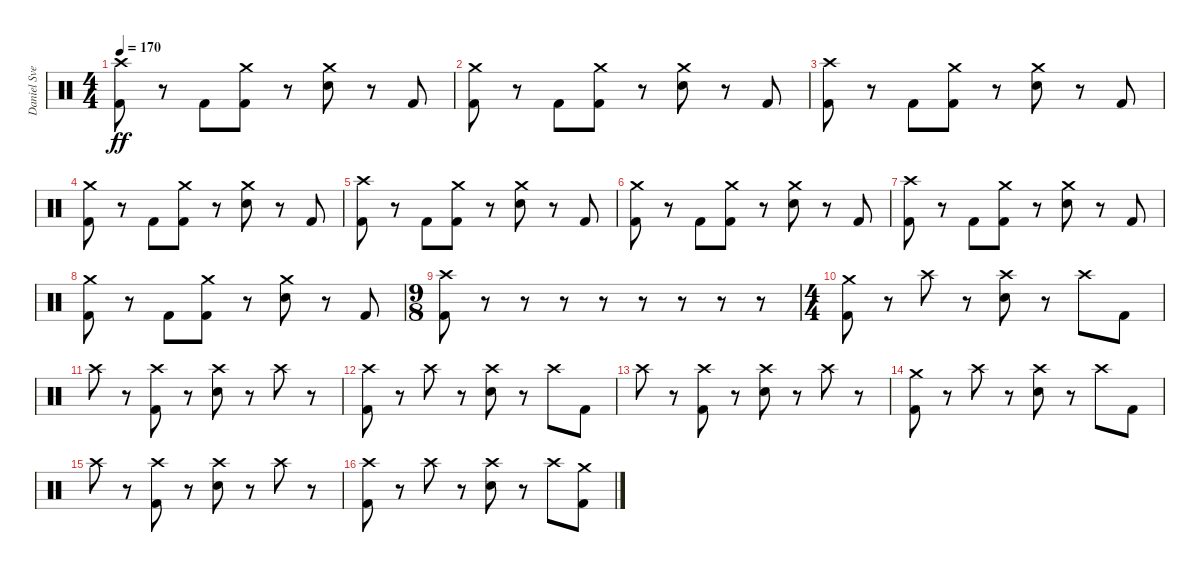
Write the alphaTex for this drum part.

\track ("Daniel Svensson" "Daniel Sve") {instrument percussion}
\staff {score}
\articulation defaults
\ts (4 4)
\tempo 170
\clef neutral
\ks c
("Crash high (hit)" "Kick (hit) 2").8{dy ff} r.8 "Kick (hit) 2".8 ("Crash medium (hit)" "Kick (hit) 2").8 r.8 ("Crash medium (hit)" "Electric Snare (hit)").8 r.8 "Kick (hit) 2".8 |
("Crash medium (hit)" "Kick (hit) 2").8 r.8 "Kick (hit) 2".8 ("Crash medium (hit)" "Kick (hit) 2").8 r.8 ("Crash medium (hit)" "Electric Snare (hit)").8 r.8 "Kick (hit) 2".8 |
("Crash high (hit)" "Kick (hit) 2").8 r.8 "Kick (hit) 2".8 ("Crash medium (hit)" "Kick (hit) 2").8 r.8 ("Crash medium (hit)" "Electric Snare (hit)").8 r.8 "Kick (hit) 2".8 |
("Crash medium (hit)" "Kick (hit) 2").8 r.8 "Kick (hit) 2".8 ("Crash medium (hit)" "Kick (hit) 2").8 r.8 ("Crash medium (hit)" "Electric Snare (hit)").8 r.8 "Kick (hit) 2".8 |
("Crash high (hit)" "Kick (hit) 2").8 r.8 "Kick (hit) 2".8 ("Crash medium (hit)" "Kick (hit) 2").8 r.8 ("Crash medium (hit)" "Electric Snare (hit)").8 r.8 "Kick (hit) 2".8 |
("Crash medium (hit)" "Kick (hit) 2").8 r.8 "Kick (hit) 2".8 ("Crash medium (hit)" "Kick (hit) 2").8 r.8 ("Crash medium (hit)" "Electric Snare (hit)").8 r.8 "Kick (hit) 2".8 |
("Crash high (hit)" "Kick (hit) 2").8 r.8 "Kick (hit) 2".8 ("Crash medium (hit)" "Kick (hit) 2").8 r.8 ("Crash medium (hit)" "Electric Snare (hit)").8 r.8 "Kick (hit) 2".8 |
("Crash medium (hit)" "Kick (hit) 2").8 r.8 "Kick (hit) 2".8 ("Crash medium (hit)" "Kick (hit) 2").8 r.8 ("Crash medium (hit)" "Electric Snare (hit)").8 r.8 "Kick (hit) 2".8 |
\ts (9 8)
("Crash high (hit)" "Kick (hit) 2").8 r.8 r.8 r.8 r.8 r.8 r.8 r.8 r.8 |
\ts (4 4)
("Crash medium (hit)" "Kick (hit) 2").8 r.8 "Crash high (hit)".8 r.8 ("Crash high (hit)" "Electric Snare (hit)").8 r.8 "Crash high (hit)".8 "Kick (hit) 2".8 |
"Crash high (hit)".8 r.8 ("Crash high (hit)" "Kick (hit) 2").8 r.8 ("Crash high (hit)" "Electric Snare (hit)").8 r.8 "Crash high (hit)".8 r.8 |
("Crash high (hit)" "Kick (hit) 2").8 r.8 "Crash high (hit)".8 r.8 ("Crash high (hit)" "Electric Snare (hit)").8 r.8 "Crash high (hit)".8 "Kick (hit) 2".8 |
"Crash high (hit)".8 r.8 ("Crash high (hit)" "Kick (hit) 2").8 r.8 ("Crash high (hit)" "Electric Snare (hit)").8 r.8 "Crash high (hit)".8 r.8 |
("Crash medium (hit)" "Kick (hit) 2").8 r.8 "Crash high (hit)".8 r.8 ("Crash high (hit)" "Electric Snare (hit)").8 r.8 "Crash high (hit)".8 "Kick (hit) 2".8 |
"Crash high (hit)".8 r.8 ("Crash high (hit)" "Kick (hit) 2").8 r.8 ("Crash high (hit)" "Electric Snare (hit)").8 r.8 "Crash high (hit)".8 r.8 |
("Crash high (hit)" "Kick (hit) 2").8 r.8 "Crash high (hit)".8 r.8 ("Crash high (hit)" "Electric Snare (hit)").8 r.8 "Crash high (hit)".8 ("Crash medium (hit)" "Kick (hit) 2").8
